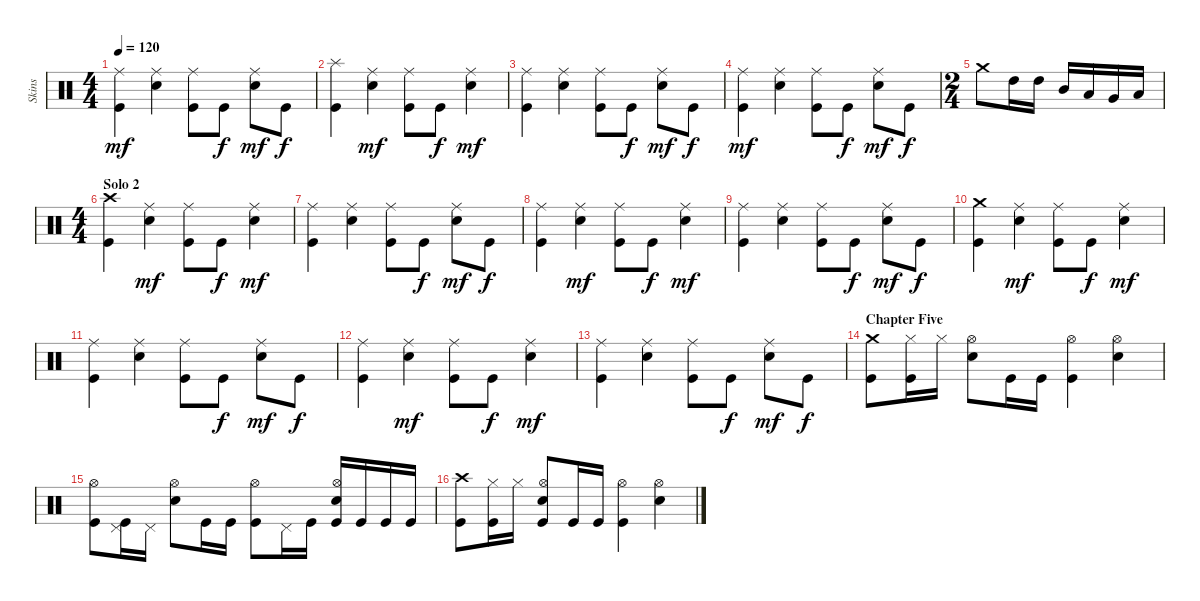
\track ("Skins" "Skins") {instrument percussion}
\staff {score}
\articulation defaults
\ts (4 4)
\tempo 120
\clef neutral
\ks c
("Ride (middle)" "Kick (hit)").4{dy mf} ("Ride (middle)" "Snare (hit) 2").4 ("Ride (middle)" "Kick (hit)").8 "Kick (hit)".8{dy f} ("Ride (middle)" "Snare (hit) 2").8{dy mf} "Kick (hit)".8{dy f} |
("Splash (hit)" "Kick (hit)").4 ("Ride (middle)" "Snare (hit) 2").4{dy mf} ("Ride (middle)" "Kick (hit)").8 "Kick (hit)".8{dy f} ("Ride (middle)" "Snare (hit) 2").4{dy mf} |
("Ride (middle)" "Kick (hit)").4 ("Ride (middle)" "Snare (hit) 2").4 ("Ride (middle)" "Kick (hit)").8 "Kick (hit)".8{dy f} ("Ride (middle)" "Snare (hit) 2").8{dy mf} "Kick (hit)".8{dy f} |
("Ride (middle)" "Kick (hit)").4{dy mf} ("Ride (middle)" "Snare (hit) 2").4 ("Ride (middle)" "Kick (hit)").8 "Kick (hit)".8{dy f} ("Ride (middle)" "Snare (hit) 2").8{dy mf} "Kick (hit)".8{dy f} |
\ts (2 4)
"Crash medium (hit)".8 "High Tom (hit)".16 "High Tom (hit)".16 "Mid Tom (hit)".16 "Low Tom (hit)".16 "Very Low Tom (hit)".16 "Low Floor Tom (hit)".16 |
\ts (4 4)
\section ("" "Solo 2")
("Crash high (hit)" "Kick (hit)").4 ("Ride (middle)" "Snare (hit) 2").4{dy mf} ("Ride (middle)" "Kick (hit)").8 "Kick (hit)".8{dy f} ("Ride (middle)" "Snare (hit) 2").4{dy mf} |
("Ride (middle)" "Kick (hit)").4 ("Ride (middle)" "Snare (hit) 2").4 ("Ride (middle)" "Kick (hit)").8 "Kick (hit)".8{dy f} ("Ride (middle)" "Snare (hit) 2").8{dy mf} "Kick (hit)".8{dy f} |
("Ride (middle)" "Kick (hit)").4 ("Ride (middle)" "Snare (hit) 2").4{dy mf} ("Ride (middle)" "Kick (hit)").8 "Kick (hit)".8{dy f} ("Ride (middle)" "Snare (hit) 2").4{dy mf} |
("Ride (middle)" "Kick (hit)").4 ("Ride (middle)" "Snare (hit) 2").4 ("Ride (middle)" "Kick (hit)").8 "Kick (hit)".8{dy f} ("Ride (middle)" "Snare (hit) 2").8{dy mf} "Kick (hit)".8{dy f} |
("Crash medium (hit)" "Kick (hit)").4 ("Ride (middle)" "Snare (hit) 2").4{dy mf} ("Ride (middle)" "Kick (hit)").8 "Kick (hit)".8{dy f} ("Ride (middle)" "Snare (hit) 2").4{dy mf} |
("Ride (middle)" "Kick (hit)").4 ("Ride (middle)" "Snare (hit) 2").4 ("Ride (middle)" "Kick (hit)").8 "Kick (hit)".8{dy f} ("Ride (middle)" "Snare (hit) 2").8{dy mf} "Kick (hit)".8{dy f} |
("Ride (middle)" "Kick (hit)").4 ("Ride (middle)" "Snare (hit) 2").4{dy mf} ("Ride (middle)" "Kick (hit)").8 "Kick (hit)".8{dy f} ("Ride (middle)" "Snare (hit) 2").4{dy mf} |
("Ride (middle)" "Kick (hit)").4 ("Ride (middle)" "Snare (hit) 2").4 ("Ride (middle)" "Kick (hit)").8 "Kick (hit)".8{dy f} ("Ride (middle)" "Snare (hit) 2").8{dy mf} "Kick (hit)".8{dy f} |
\section ("" "Chapter Five")
("Crash medium (hit)" "Kick (hit)").8 ("Hi-Hat (closed)" "Kick (hit)").16 "Hi-Hat (closed)".16 ("Hi-Hat (open)" "Electric Snare (hit)").8 "Kick (hit)".16 "Kick (hit)".16 ("Hi-Hat (open)" "Kick (hit)").4 ("Hi-Hat (open)" "Electric Snare (hit)").4 |
("Hi-Hat (open)" "Kick (hit)").8 ("Pedal Hi-Hat (hit)" "Kick (hit)").16 "Pedal Hi-Hat (hit)".16 ("Hi-Hat (open)" "Electric Snare (hit)").8 "Kick (hit)".16 "Kick (hit)".16 ("Hi-Hat (open)" "Kick (hit)").8 "Pedal Hi-Hat (hit)".16 "Kick (hit)".16 ("Hi-Hat (open)" "Electric Snare (hit)" "Kick (hit)").16 "Kick (hit)".16 "Kick (hit)".16 "Kick (hit)".16 |
("Crash high (hit)" "Kick (hit)").8 ("Hi-Hat (closed)" "Kick (hit)").16 "Hi-Hat (closed)".16 ("Hi-Hat (open)" "Electric Snare (hit)" "Kick (hit)").8 "Kick (hit)".16 "Kick (hit)".16 ("Hi-Hat (open)" "Kick (hit)").4 ("Hi-Hat (open)" "Electric Snare (hit)").4
